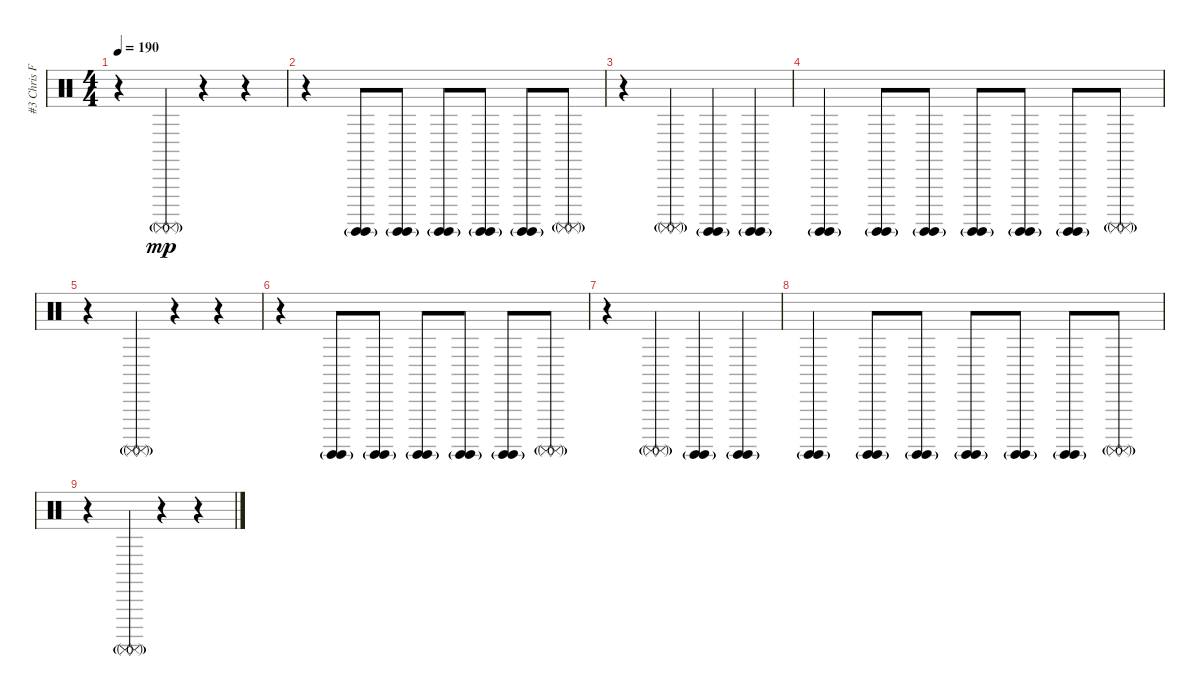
\track ("#3 Chris Fehn" "#3 Chris F") {instrument percussion}
\staff {score}
\articulation defaults
\ts (4 4)
\tempo 190
\clef neutral
\ks c
r.4{dy mp} ("Surdo (mute)"{g} "Surdo (mute)"{g}).4 r.4 r.4 |
r.4 ("Surdo (hit)"{g} "Surdo (hit)"{g}).8 ("Surdo (hit)"{g} "Surdo (hit)"{g}).8 ("Surdo (hit)"{g} "Surdo (hit)"{g}).8 ("Surdo (hit)"{g} "Surdo (hit)"{g}).8 ("Surdo (hit)"{g} "Surdo (hit)"{g}).8 ("Surdo (mute)"{g} "Surdo (mute)"{g}).8 |
r.4 ("Surdo (mute)"{g} "Surdo (mute)"{g}).4 ("Surdo (hit)"{g} "Surdo (hit)"{g}).4 ("Surdo (hit)"{g} "Surdo (hit)"{g}).4 |
("Surdo (hit)"{g} "Surdo (hit)"{g}).4 ("Surdo (hit)"{g} "Surdo (hit)"{g}).8 ("Surdo (hit)"{g} "Surdo (hit)"{g}).8 ("Surdo (hit)"{g} "Surdo (hit)"{g}).8 ("Surdo (hit)"{g} "Surdo (hit)"{g}).8 ("Surdo (hit)"{g} "Surdo (hit)"{g}).8 ("Surdo (mute)"{g} "Surdo (mute)"{g}).8 |
r.4 ("Surdo (mute)"{g} "Surdo (mute)"{g}).4 r.4 r.4 |
r.4 ("Surdo (hit)"{g} "Surdo (hit)"{g}).8 ("Surdo (hit)"{g} "Surdo (hit)"{g}).8 ("Surdo (hit)"{g} "Surdo (hit)"{g}).8 ("Surdo (hit)"{g} "Surdo (hit)"{g}).8 ("Surdo (hit)"{g} "Surdo (hit)"{g}).8 ("Surdo (mute)"{g} "Surdo (mute)"{g}).8 |
r.4 ("Surdo (mute)"{g} "Surdo (mute)"{g}).4 ("Surdo (hit)"{g} "Surdo (hit)"{g}).4 ("Surdo (hit)"{g} "Surdo (hit)"{g}).4 |
("Surdo (hit)"{g} "Surdo (hit)"{g}).4 ("Surdo (hit)"{g} "Surdo (hit)"{g}).8 ("Surdo (hit)"{g} "Surdo (hit)"{g}).8 ("Surdo (hit)"{g} "Surdo (hit)"{g}).8 ("Surdo (hit)"{g} "Surdo (hit)"{g}).8 ("Surdo (hit)"{g} "Surdo (hit)"{g}).8 ("Surdo (mute)"{g} "Surdo (mute)"{g}).8 |
r.4 ("Surdo (mute)"{g} "Surdo (mute)"{g}).4 r.4 r.4
